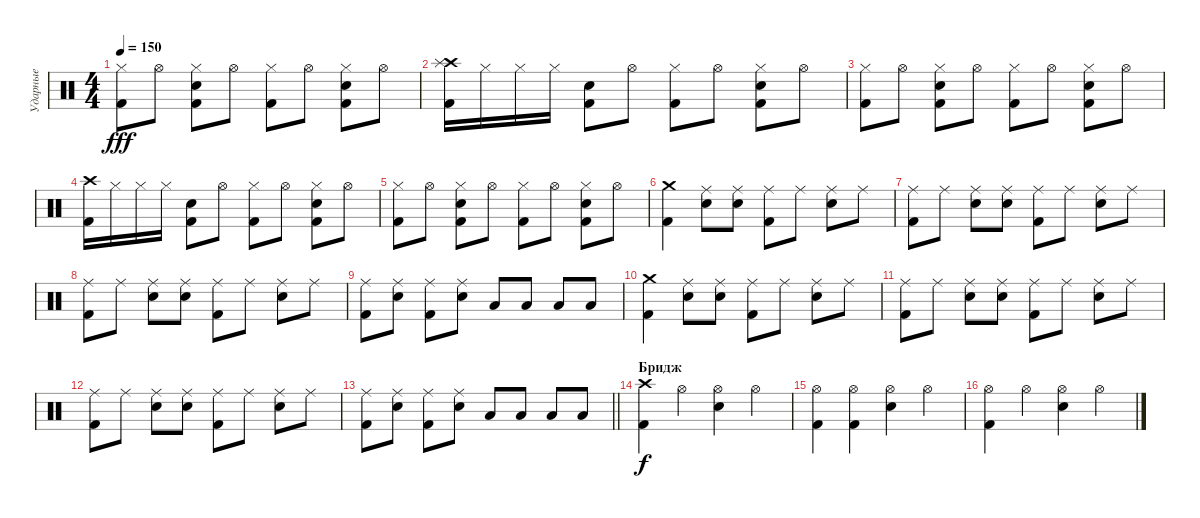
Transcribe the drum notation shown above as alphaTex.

\track ("Ударные" "Ударные") {instrument percussion}
\staff {score}
\articulation defaults
\ts (4 4)
\tempo 150
\clef neutral
\ks c
("Hi-Hat (closed)" "Kick (hit) 2").8{dy fff} "Hi-Hat (open)".8 ("Hi-Hat (closed)" "Electric Snare (hit)" "Kick (hit) 2").8 "Hi-Hat (open)".8 ("Hi-Hat (closed)" "Kick (hit) 2").8 "Hi-Hat (open)".8 ("Hi-Hat (closed)" "Electric Snare (hit)" "Kick (hit) 2").8 "Hi-Hat (open)".8 |
("Crash high (hit)" "Kick (hit) 2" "Splash (hit)").16 "Hi-Hat (closed)".16 "Hi-Hat (closed)".16 "Hi-Hat (closed)".16 ("Electric Snare (hit)" "Kick (hit) 2").8 "Hi-Hat (open)".8 ("Hi-Hat (closed)" "Kick (hit) 2").8 "Hi-Hat (open)".8 ("Hi-Hat (closed)" "Electric Snare (hit)" "Kick (hit) 2").8 "Hi-Hat (open)".8 |
("Hi-Hat (closed)" "Kick (hit) 2").8 "Hi-Hat (open)".8 ("Hi-Hat (closed)" "Electric Snare (hit)" "Kick (hit) 2").8 "Hi-Hat (open)".8 ("Hi-Hat (closed)" "Kick (hit) 2").8 "Hi-Hat (open)".8 ("Hi-Hat (closed)" "Electric Snare (hit)" "Kick (hit) 2").8 "Hi-Hat (open)".8 |
("Crash high (hit)" "Kick (hit) 2").16 "Hi-Hat (closed)".16 "Hi-Hat (closed)".16 "Hi-Hat (closed)".16 ("Electric Snare (hit)" "Kick (hit) 2").8 "Hi-Hat (open)".8 ("Hi-Hat (closed)" "Kick (hit) 2").8 "Hi-Hat (open)".8 ("Hi-Hat (closed)" "Electric Snare (hit)" "Kick (hit) 2").8 "Hi-Hat (open)".8 |
("Hi-Hat (closed)" "Kick (hit) 2").8 "Hi-Hat (open)".8 ("Hi-Hat (closed)" "Electric Snare (hit)" "Kick (hit) 2").8 "Hi-Hat (open)".8 ("Hi-Hat (closed)" "Kick (hit) 2").8 "Hi-Hat (open)".8 ("Hi-Hat (closed)" "Electric Snare (hit)" "Kick (hit) 2").8 "Hi-Hat (open)".8 |
("Crash medium (hit)" "Kick (hit) 2").4 ("Ride (middle)" "Electric Snare (hit)").8 ("Ride (middle)" "Electric Snare (hit)").8 ("Ride (middle)" "Kick (hit) 2").8 "Ride (middle)".8 ("Ride (middle)" "Electric Snare (hit)").8 "Ride (middle)".8 |
("Ride (middle)" "Kick (hit) 2").8 "Ride (middle)".8 ("Ride (middle)" "Electric Snare (hit)").8 ("Ride (middle)" "Electric Snare (hit)").8 ("Ride (middle)" "Kick (hit) 2").8 "Ride (middle)".8 ("Ride (middle)" "Electric Snare (hit)").8 "Ride (middle)".8 |
("Ride (middle)" "Kick (hit) 2").8 "Ride (middle)".8 ("Ride (middle)" "Electric Snare (hit)").8 ("Ride (middle)" "Electric Snare (hit)").8 ("Ride (middle)" "Kick (hit) 2").8 "Ride (middle)".8 ("Ride (middle)" "Electric Snare (hit)").8 "Ride (middle)".8 |
("Ride (middle)" "Kick (hit) 2").8 ("Ride (middle)" "Electric Snare (hit)").8 ("Ride (middle)" "Kick (hit) 2").8 ("Ride (middle)" "Electric Snare (hit)").8 "Low Tom (hit)".8 "Low Tom (hit)".8 "Low Floor Tom (hit)".8 "Low Floor Tom (hit)".8 |
("Crash medium (hit)" "Kick (hit) 2").4 ("Ride (middle)" "Electric Snare (hit)").8 ("Ride (middle)" "Electric Snare (hit)").8 ("Ride (middle)" "Kick (hit) 2").8 "Ride (middle)".8 ("Ride (middle)" "Electric Snare (hit)").8 "Ride (middle)".8 |
("Ride (middle)" "Kick (hit) 2").8 "Ride (middle)".8 ("Ride (middle)" "Electric Snare (hit)").8 ("Ride (middle)" "Electric Snare (hit)").8 ("Ride (middle)" "Kick (hit) 2").8 "Ride (middle)".8 ("Ride (middle)" "Electric Snare (hit)").8 "Ride (middle)".8 |
("Ride (middle)" "Kick (hit) 2").8 "Ride (middle)".8 ("Ride (middle)" "Electric Snare (hit)").8 ("Ride (middle)" "Electric Snare (hit)").8 ("Ride (middle)" "Kick (hit) 2").8 "Ride (middle)".8 ("Ride (middle)" "Electric Snare (hit)").8 "Ride (middle)".8 |
\barLineRight lightlight
("Ride (middle)" "Kick (hit) 2").8 ("Ride (middle)" "Electric Snare (hit)").8 ("Ride (middle)" "Kick (hit) 2").8 ("Ride (middle)" "Electric Snare (hit)").8 "Low Tom (hit)".8 "Low Tom (hit)".8 "Low Floor Tom (hit)".8 "Low Floor Tom (hit)".8 |
\section ("" "Бридж")
("Kick (hit) 2" "Crash high (hit)").4{dy f} "Hi-Hat (open)".4 ("Electric Snare (hit)" "Hi-Hat (open)").4 "Hi-Hat (open)".4 |
("Kick (hit) 2" "Hi-Hat (open)").4 ("Kick (hit) 2" "Hi-Hat (open)").4 ("Electric Snare (hit)" "Hi-Hat (open)").4 "Hi-Hat (open)".4 |
("Kick (hit) 2" "Hi-Hat (open)").4 "Hi-Hat (open)".4 ("Electric Snare (hit)" "Hi-Hat (open)").4 "Hi-Hat (open)".4
